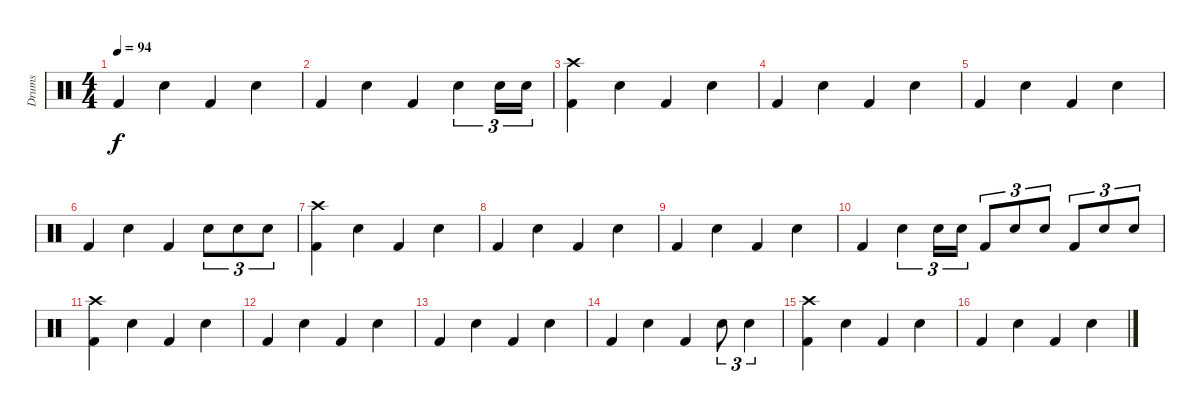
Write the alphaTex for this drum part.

\track ("Drums" "Drums") {instrument percussion}
\staff {score}
\articulation defaults
\ts (4 4)
\tempo 94
\clef neutral
\ks c "Kick (hit) 2".4{dy f} "Snare (hit) 2".4 "Kick (hit) 2".4 "Snare (hit) 2".4
|
"Kick (hit) 2".4 "Snare (hit) 2".4 "Kick (hit) 2".4 "Snare (hit) 2".4{tu (3 2)} "Snare (hit) 2".16{tu (3 2)} "Snare (hit) 2".16{tu (3 2)} |
("Crash high (hit)" "Kick (hit) 2").4 "Snare (hit) 2".4 "Kick (hit) 2".4 "Snare (hit) 2".4 |
"Kick (hit) 2".4 "Snare (hit) 2".4 "Kick (hit) 2".4 "Snare (hit) 2".4 |
"Kick (hit) 2".4 "Snare (hit) 2".4 "Kick (hit) 2".4 "Snare (hit) 2".4 |
"Kick (hit) 2".4 "Snare (hit) 2".4 "Kick (hit) 2".4 "Snare (hit) 2".8{tu (3 2)} "Snare (hit) 2".8{tu (3 2)} "Snare (hit) 2".8{tu (3 2)} |
("Crash high (hit)" "Kick (hit) 2").4 "Snare (hit) 2".4 "Kick (hit) 2".4 "Snare (hit) 2".4 |
"Kick (hit) 2".4 "Snare (hit) 2".4 "Kick (hit) 2".4 "Snare (hit) 2".4 |
"Kick (hit) 2".4 "Snare (hit) 2".4 "Kick (hit) 2".4 "Snare (hit) 2".4 |
"Kick (hit) 2".4 "Snare (hit) 2".4{tu (3 2)} "Snare (hit) 2".16{tu (3 2)} "Snare (hit) 2".16{tu (3 2)} "Kick (hit) 2".8{tu (3 2)} "Snare (hit) 2".8{tu (3 2)} "Snare (hit) 2".8{tu (3 2)} "Kick (hit) 2".8{tu (3 2)} "Snare (hit) 2".8{tu (3 2)} "Snare (hit) 2".8{tu (3 2)} |
("Crash high (hit)" "Kick (hit) 2").4 "Snare (hit) 2".4 "Kick (hit) 2".4 "Snare (hit) 2".4 |
"Kick (hit) 2".4 "Snare (hit) 2".4 "Kick (hit) 2".4 "Snare (hit) 2".4 |
"Kick (hit) 2".4 "Snare (hit) 2".4 "Kick (hit) 2".4 "Snare (hit) 2".4 |
"Kick (hit) 2".4 "Snare (hit) 2".4 "Kick (hit) 2".4 "Snare (hit) 2".8{tu (3 2)} "Snare (hit) 2".4{tu (3 2)} |
("Crash high (hit)" "Kick (hit) 2").4{volume 2} "Snare (hit) 2".4 "Kick (hit) 2".4 "Snare (hit) 2".4 |
"Kick (hit) 2".4 "Snare (hit) 2".4 "Kick (hit) 2".4 "Snare (hit) 2".4
